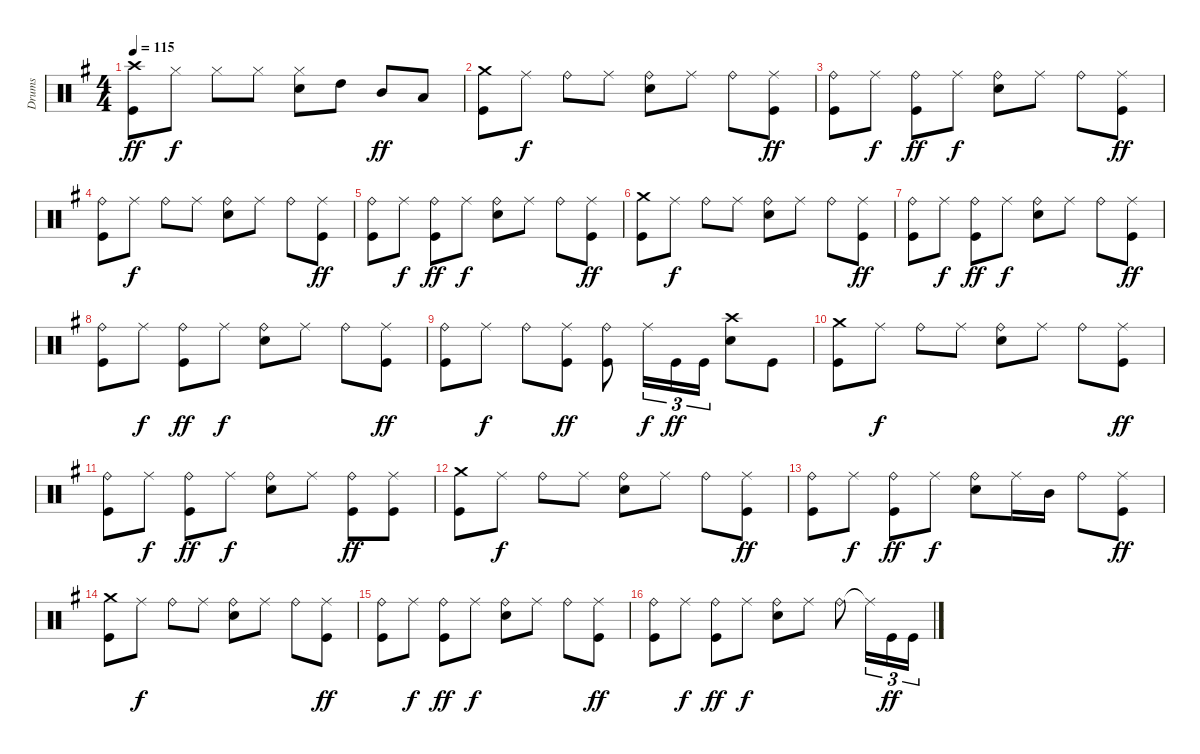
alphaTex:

\track ("Drums" "Drums") {instrument percussion}
\staff {score}
\articulation defaults
\ts (4 4)
\tempo 115
\clef neutral
\ks g
("Crash high (hit)" "Kick (hit)").8{dy ff} "Hi-Hat (closed)".8{dy f} "Hi-Hat (closed)".8 "Hi-Hat (closed)".8 ("Hi-Hat (closed)" "Electric Snare (hit)").8 "High Tom (hit)".8 "Mid Tom (hit)".8{dy ff} "Low Tom (hit)".8 |
("Crash medium (hit)" "Kick (hit)").8 "Ride (middle)".8{dy f} "Ride (bell)".8 "Ride (middle)".8 ("Ride (bell)" "Electric Snare (hit)").8 "Ride (middle)".8 "Ride (bell)".8 ("Ride (middle)" "Kick (hit)").8{dy ff} |
("Ride (bell)" "Kick (hit)").8 "Ride (middle)".8{dy f} ("Ride (bell)" "Kick (hit)").8{dy ff} "Ride (middle)".8{dy f} ("Ride (bell)" "Electric Snare (hit)").8 "Ride (middle)".8 "Ride (bell)".8 ("Ride (middle)" "Kick (hit)").8{dy ff} |
("Ride (bell)" "Kick (hit)").8 "Ride (middle)".8{dy f} "Ride (bell)".8 "Ride (middle)".8 ("Ride (bell)" "Electric Snare (hit)").8 "Ride (middle)".8 "Ride (bell)".8 ("Ride (middle)" "Kick (hit)").8{dy ff} |
("Ride (bell)" "Kick (hit)").8 "Ride (middle)".8{dy f} ("Ride (bell)" "Kick (hit)").8{dy ff} "Ride (middle)".8{dy f} ("Ride (bell)" "Electric Snare (hit)").8 "Ride (middle)".8 "Ride (bell)".8 ("Ride (middle)" "Kick (hit)").8{dy ff} |
("Crash medium (hit)" "Kick (hit)").8 "Ride (middle)".8{dy f} "Ride (bell)".8 "Ride (middle)".8 ("Ride (bell)" "Electric Snare (hit)").8 "Ride (middle)".8 "Ride (bell)".8 ("Ride (middle)" "Kick (hit)").8{dy ff} |
("Ride (bell)" "Kick (hit)").8 "Ride (middle)".8{dy f} ("Ride (bell)" "Kick (hit)").8{dy ff} "Ride (middle)".8{dy f} ("Ride (bell)" "Electric Snare (hit)").8 "Ride (middle)".8 "Ride (bell)".8 ("Ride (middle)" "Kick (hit)").8{dy ff} |
("Ride (bell)" "Kick (hit)").8 "Ride (middle)".8{dy f} ("Ride (bell)" "Kick (hit)").8{dy ff} "Ride (middle)".8{dy f} ("Ride (bell)" "Electric Snare (hit)").8 "Ride (middle)".8 "Ride (bell)".8 ("Ride (middle)" "Kick (hit)").8{dy ff} |
("Ride (bell)" "Kick (hit)").8 "Ride (middle)".8{dy f} "Ride (bell)".8 ("Ride (middle)" "Kick (hit)").8{dy ff} ("Ride (bell)" "Kick (hit)").8 "Ride (middle)".16{tu (3 2) dy f} "Kick (hit)".16{tu (3 2) dy ff} "Kick (hit)".16{tu (3 2)} ("Crash high (hit)" "Electric Snare (hit)").8 "Kick (hit)".8 |
("Crash medium (hit)" "Kick (hit)").8 "Ride (middle)".8{dy f} "Ride (bell)".8 "Ride (middle)".8 ("Ride (bell)" "Electric Snare (hit)").8 "Ride (middle)".8 "Ride (bell)".8 ("Ride (middle)" "Kick (hit)").8{dy ff} |
("Ride (bell)" "Kick (hit)").8 "Ride (middle)".8{dy f} ("Ride (bell)" "Kick (hit)").8{dy ff} "Ride (middle)".8{dy f} ("Ride (bell)" "Electric Snare (hit)").8 "Ride (middle)".8 ("Ride (bell)" "Kick (hit)").8{dy ff} ("Ride (middle)" "Kick (hit)").8 |
("Crash medium (hit)" "Kick (hit)").8 "Ride (middle)".8{dy f} "Ride (bell)".8 "Ride (middle)".8 ("Ride (bell)" "Electric Snare (hit)").8 "Ride (middle)".8 "Ride (bell)".8 ("Ride (middle)" "Kick (hit)").8{dy ff} |
("Ride (bell)" "Kick (hit)").8 "Ride (middle)".8{dy f} ("Ride (bell)" "Kick (hit)").8{dy ff} "Ride (middle)".8{dy f} ("Ride (bell)" "Electric Snare (hit)").8 "Ride (middle)".16 "Mid Tom (hit)".16 "Ride (bell)".8 ("Ride (middle)" "Kick (hit)").8{dy ff} |
("Crash medium (hit)" "Kick (hit)").8 "Ride (middle)".8{dy f} "Ride (bell)".8 "Ride (middle)".8 ("Ride (bell)" "Electric Snare (hit)").8 "Ride (middle)".8 "Ride (bell)".8 ("Ride (middle)" "Kick (hit)").8{dy ff} |
("Ride (bell)" "Kick (hit)").8 "Ride (middle)".8{dy f} ("Ride (bell)" "Kick (hit)").8{dy ff} "Ride (middle)".8{dy f} ("Ride (bell)" "Electric Snare (hit)").8 "Ride (middle)".8 "Ride (bell)".8 ("Ride (middle)" "Kick (hit)").8{dy ff} |
("Ride (bell)" "Kick (hit)").8 "Ride (middle)".8{dy f} ("Ride (bell)" "Kick (hit)").8{dy ff} "Ride (middle)".8{dy f} ("Ride (bell)" "Electric Snare (hit)").8 "Ride (middle)".8 "Ride (bell)".8 "Ride (middle)"{t}.16{tu (3 2)} "Kick (hit)".16{tu (3 2) dy ff} "Kick (hit)".16{tu (3 2)}
